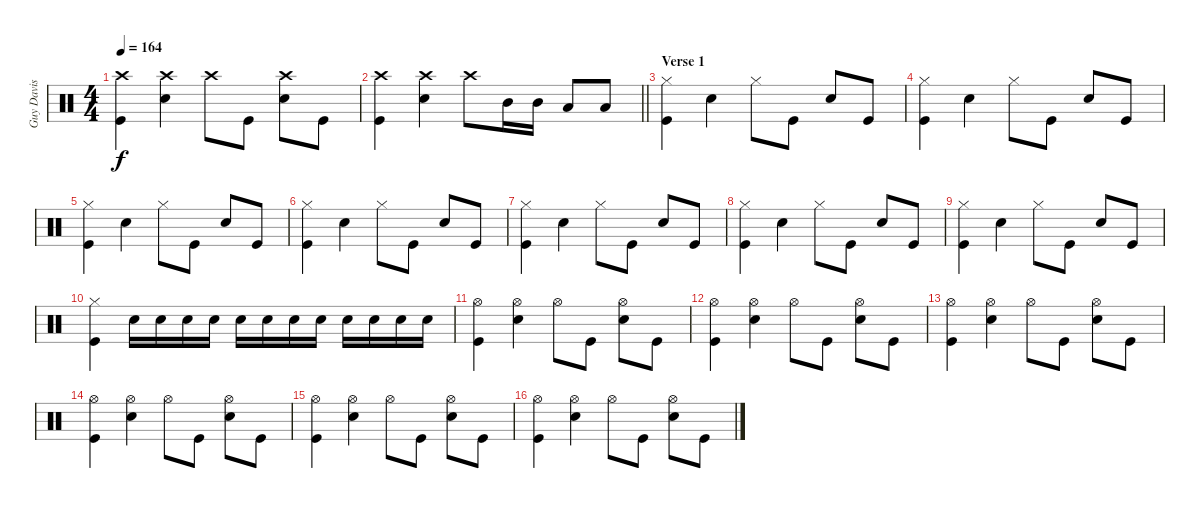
\track ("Guy Davis" "Guy Davis") {instrument percussion}
\staff {score}
\articulation defaults
\ts (4 4)
\tempo 164
\clef neutral
\ks c
("Crash high (hit)" "Kick (hit)").4{dy f} ("Snare (hit) 2" "Crash high (hit)").4 "Crash high (hit)".8 "Kick (hit)".8 ("Snare (hit) 2" "Crash high (hit)").8 "Kick (hit)".8 |
\barLineRight lightlight
("Crash high (hit)" "Kick (hit)").4 ("Snare (hit) 2" "Crash high (hit)").4 "Crash high (hit)".8 "Mid Tom (hit)".16 "Mid Tom (hit)".16 "Low Tom (hit)".8 "Low Tom (hit)".8 |
\section ("" "Verse 1")
("Hi-Hat (closed)" "Kick (hit)").4 "Snare (hit) 2".4 "Hi-Hat (closed)".8 "Kick (hit)".8 "Snare (hit) 2".8 "Kick (hit)".8 |
("Hi-Hat (closed)" "Kick (hit)").4 "Snare (hit) 2".4 "Hi-Hat (closed)".8 "Kick (hit)".8 "Snare (hit) 2".8 "Kick (hit)".8 |
("Hi-Hat (closed)" "Kick (hit)").4 "Snare (hit) 2".4 "Hi-Hat (closed)".8 "Kick (hit)".8 "Snare (hit) 2".8 "Kick (hit)".8 |
("Hi-Hat (closed)" "Kick (hit)").4 "Snare (hit) 2".4 "Hi-Hat (closed)".8 "Kick (hit)".8 "Snare (hit) 2".8 "Kick (hit)".8 |
("Hi-Hat (closed)" "Kick (hit)").4 "Snare (hit) 2".4 "Hi-Hat (closed)".8 "Kick (hit)".8 "Snare (hit) 2".8 "Kick (hit)".8 |
("Hi-Hat (closed)" "Kick (hit)").4 "Snare (hit) 2".4 "Hi-Hat (closed)".8 "Kick (hit)".8 "Snare (hit) 2".8 "Kick (hit)".8 |
("Hi-Hat (closed)" "Kick (hit)").4 "Snare (hit) 2".4 "Hi-Hat (closed)".8 "Kick (hit)".8 "Snare (hit) 2".8 "Kick (hit)".8 |
("Hi-Hat (closed)" "Kick (hit)").4 "Snare (hit) 2".16 "Snare (hit) 2".16 "Snare (hit) 2".16 "Snare (hit) 2".16 "Snare (hit) 2".16 "Snare (hit) 2".16 "Snare (hit) 2".16 "Snare (hit) 2".16 "Snare (hit) 2".16 "Snare (hit) 2".16 "Snare (hit) 2".16 "Snare (hit) 2".16 |
("Hi-Hat (open)" "Kick (hit)").4 ("Snare (hit) 2" "Hi-Hat (open)").4 "Hi-Hat (open)".8 "Kick (hit)".8 ("Snare (hit) 2" "Hi-Hat (open)").8 "Kick (hit)".8 |
("Hi-Hat (open)" "Kick (hit)").4 ("Snare (hit) 2" "Hi-Hat (open)").4 "Hi-Hat (open)".8 "Kick (hit)".8 ("Snare (hit) 2" "Hi-Hat (open)").8 "Kick (hit)".8 |
("Hi-Hat (open)" "Kick (hit)").4 ("Snare (hit) 2" "Hi-Hat (open)").4 "Hi-Hat (open)".8 "Kick (hit)".8 ("Snare (hit) 2" "Hi-Hat (open)").8 "Kick (hit)".8 |
("Hi-Hat (open)" "Kick (hit)").4 ("Snare (hit) 2" "Hi-Hat (open)").4 "Hi-Hat (open)".8 "Kick (hit)".8 ("Snare (hit) 2" "Hi-Hat (open)").8 "Kick (hit)".8 |
("Hi-Hat (open)" "Kick (hit)").4 ("Snare (hit) 2" "Hi-Hat (open)").4 "Hi-Hat (open)".8 "Kick (hit)".8 ("Snare (hit) 2" "Hi-Hat (open)").8 "Kick (hit)".8 |
("Hi-Hat (open)" "Kick (hit)").4 ("Snare (hit) 2" "Hi-Hat (open)").4 "Hi-Hat (open)".8 "Kick (hit)".8 ("Snare (hit) 2" "Hi-Hat (open)").8 "Kick (hit)".8
